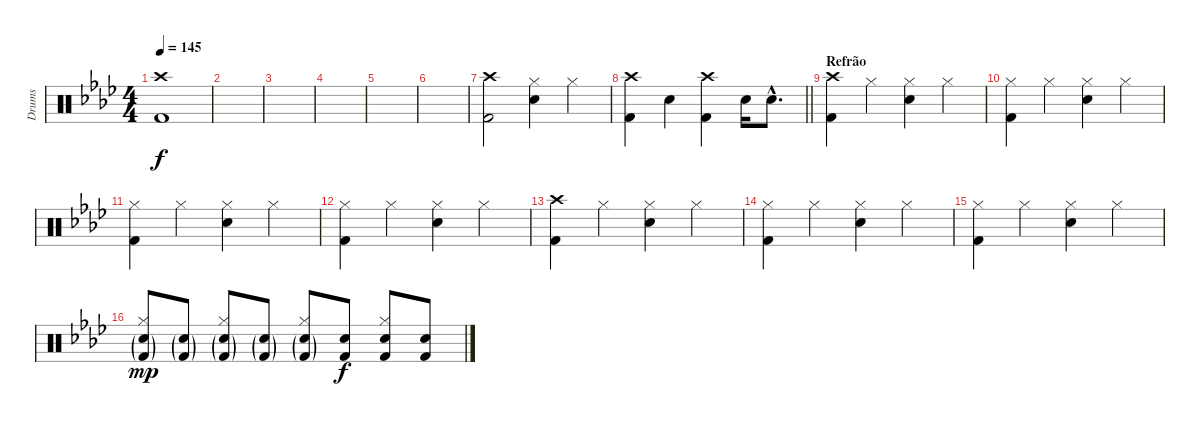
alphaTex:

\track ("Drums" "Drums") {instrument percussion}
\staff {score}
\articulation defaults
\ts (4 4)
\tempo 145
\clef neutral
\ks ab
("Crash high (hit)" "Kick (hit) 2").1{dy f} |
|
|
|
|
|
("Crash high (hit)" "Kick (hit) 2").2 ("Hi-Hat (closed)" "Electric Snare (hit)").4 "Hi-Hat (closed)".4 |
\barLineRight lightlight
("Crash high (hit)" "Kick (hit) 2").4 "Electric Snare (hit)".4 ("Crash high (hit)" "Kick (hit) 2").4 "Electric Snare (hit)".16 "Electric Snare (hit)"{hac}.8{d} |
\section ("" "Refrão")
("Crash high (hit)" "Kick (hit) 2").4 "Hi-Hat (closed)".4 ("Hi-Hat (closed)" "Electric Snare (hit)").4 "Hi-Hat (closed)".4 |
("Hi-Hat (closed)" "Kick (hit) 2").4 "Hi-Hat (closed)".4 ("Hi-Hat (closed)" "Electric Snare (hit)").4 "Hi-Hat (closed)".4 |
("Hi-Hat (closed)" "Kick (hit) 2").4 "Hi-Hat (closed)".4 ("Hi-Hat (closed)" "Electric Snare (hit)").4 "Hi-Hat (closed)".4 |
("Hi-Hat (closed)" "Kick (hit) 2").4 "Hi-Hat (closed)".4 ("Hi-Hat (closed)" "Electric Snare (hit)").4 "Hi-Hat (closed)".4 |
("Crash high (hit)" "Kick (hit) 2").4 "Hi-Hat (closed)".4 ("Hi-Hat (closed)" "Electric Snare (hit)").4 "Hi-Hat (closed)".4 |
("Hi-Hat (closed)" "Kick (hit) 2").4 "Hi-Hat (closed)".4 ("Hi-Hat (closed)" "Electric Snare (hit)").4 "Hi-Hat (closed)".4 |
("Hi-Hat (closed)" "Kick (hit) 2").4 "Hi-Hat (closed)".4 ("Hi-Hat (closed)" "Electric Snare (hit)").4 "Hi-Hat (closed)".4 |
("Hi-Hat (closed)" "Electric Snare (hit)"{g} "Kick (hit) 2"{g}).8{dy mp} ("Electric Snare (hit)"{g} "Kick (hit) 2"{g}).8 ("Hi-Hat (closed)" "Electric Snare (hit)"{g} "Kick (hit) 2"{g}).8 ("Electric Snare (hit)"{g} "Kick (hit) 2"{g}).8 ("Hi-Hat (closed)" "Electric Snare (hit)"{g} "Kick (hit) 2"{g}).8 ("Electric Snare (hit)" "Kick (hit) 2").8{dy f} ("Hi-Hat (closed)" "Electric Snare (hit)" "Kick (hit) 2").8 ("Electric Snare (hit)" "Kick (hit) 2").8
